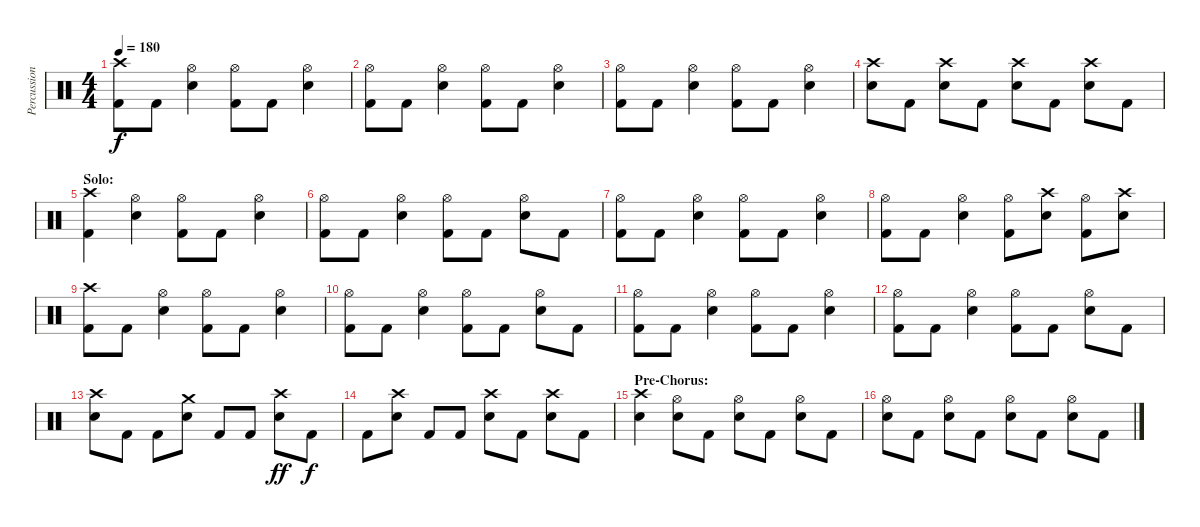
\track ("Percussion" "Percussion") {instrument percussion}
\staff {score}
\articulation defaults
\ts (4 4)
\tempo 180
\clef neutral
\ks c
("Crash high (hit)" "Kick (hit) 2").8{dy f} "Kick (hit) 2".8 ("Hi-Hat (open)" "Snare (hit) 2").4 ("Hi-Hat (open)" "Kick (hit) 2").8 "Kick (hit) 2".8 ("Hi-Hat (open)" "Snare (hit) 2").4 |
("Hi-Hat (open)" "Kick (hit) 2").8 "Kick (hit) 2".8 ("Hi-Hat (open)" "Snare (hit) 2").4 ("Hi-Hat (open)" "Kick (hit) 2").8 "Kick (hit) 2".8 ("Hi-Hat (open)" "Snare (hit) 2").4 |
("Hi-Hat (open)" "Kick (hit) 2").8 "Kick (hit) 2".8 ("Hi-Hat (open)" "Snare (hit) 2").4 ("Hi-Hat (open)" "Kick (hit) 2").8 "Kick (hit) 2".8 ("Hi-Hat (open)" "Snare (hit) 2").4 |
("Crash high (hit)" "Snare (hit) 2").8 "Kick (hit) 2".8 ("Crash high (hit)" "Snare (hit) 2").8 "Kick (hit) 2".8 ("Crash high (hit)" "Snare (hit) 2").8 "Kick (hit) 2".8 ("Crash high (hit)" "Snare (hit) 2").8 "Kick (hit) 2".8 |
\section ("" "Solo:")
("Crash high (hit)" "Kick (hit) 2").4 ("Hi-Hat (open)" "Snare (hit) 2").4 ("Hi-Hat (open)" "Kick (hit) 2").8 "Kick (hit) 2".8 ("Hi-Hat (open)" "Snare (hit) 2").4 |
("Hi-Hat (open)" "Kick (hit) 2").8 "Kick (hit) 2".8 ("Hi-Hat (open)" "Snare (hit) 2").4 ("Hi-Hat (open)" "Kick (hit) 2").8 "Kick (hit) 2".8 ("Hi-Hat (open)" "Snare (hit) 2").8 "Kick (hit) 2".8 |
("Hi-Hat (open)" "Kick (hit) 2").8 "Kick (hit) 2".8 ("Hi-Hat (open)" "Snare (hit) 2").4 ("Hi-Hat (open)" "Kick (hit) 2").8 "Kick (hit) 2".8 ("Hi-Hat (open)" "Snare (hit) 2").4 |
("Hi-Hat (open)" "Kick (hit) 2").8 "Kick (hit) 2".8 ("Hi-Hat (open)" "Snare (hit) 2").4 ("Hi-Hat (open)" "Kick (hit) 2").8 ("Crash high (hit)" "Snare (hit) 2").8 ("Hi-Hat (open)" "Kick (hit) 2").8 ("Crash high (hit)" "Snare (hit) 2").8 |
("Crash high (hit)" "Kick (hit) 2").8 "Kick (hit) 2".8 ("Hi-Hat (open)" "Snare (hit) 2").4 ("Hi-Hat (open)" "Kick (hit) 2").8 "Kick (hit) 2".8 ("Hi-Hat (open)" "Snare (hit) 2").4 |
("Hi-Hat (open)" "Kick (hit) 2").8 "Kick (hit) 2".8 ("Hi-Hat (open)" "Snare (hit) 2").4 ("Hi-Hat (open)" "Kick (hit) 2").8 "Kick (hit) 2".8 ("Hi-Hat (open)" "Snare (hit) 2").8 "Kick (hit) 2".8 |
("Hi-Hat (open)" "Kick (hit) 2").8 "Kick (hit) 2".8 ("Hi-Hat (open)" "Snare (hit) 2").4 ("Hi-Hat (open)" "Kick (hit) 2").8 "Kick (hit) 2".8 ("Hi-Hat (open)" "Snare (hit) 2").4 |
("Hi-Hat (open)" "Kick (hit) 2").8 "Kick (hit) 2".8 ("Hi-Hat (open)" "Snare (hit) 2").4 ("Hi-Hat (open)" "Kick (hit) 2").8 "Kick (hit) 2".8 ("Hi-Hat (open)" "Snare (hit) 2").8 "Kick (hit) 2".8 |
("Crash high (hit)" "Snare (hit) 2").8 "Kick (hit) 2".8 "Kick (hit) 2".8 ("Crash medium (hit)" "Snare (hit) 2").8 "Kick (hit) 2".8 "Kick (hit) 2".8 ("Crash high (hit)" "Snare (hit) 2").8{dy ff} "Kick (hit) 2".8{dy f} |
"Kick (hit) 2".8 ("Crash high (hit)" "Snare (hit) 2").8 "Kick (hit) 2".8 "Kick (hit) 2".8 ("Crash high (hit)" "Snare (hit) 2").8 "Kick (hit) 2".8 ("Crash high (hit)" "Snare (hit) 2").8 "Kick (hit) 2".8 |
\section ("" "Pre-Chorus:")
("Crash high (hit)" "Snare (hit) 2").4 ("Hi-Hat (open)" "Snare (hit) 2").8 "Kick (hit) 2".8 ("Hi-Hat (open)" "Snare (hit) 2").8 "Kick (hit) 2".8 ("Hi-Hat (open)" "Snare (hit) 2").8 "Kick (hit) 2".8 |
("Hi-Hat (open)" "Snare (hit) 2").8 "Kick (hit) 2".8 ("Hi-Hat (open)" "Snare (hit) 2").8 "Kick (hit) 2".8 ("Hi-Hat (open)" "Snare (hit) 2").8 "Kick (hit) 2".8 ("Hi-Hat (open)" "Snare (hit) 2").8 "Kick (hit) 2".8
